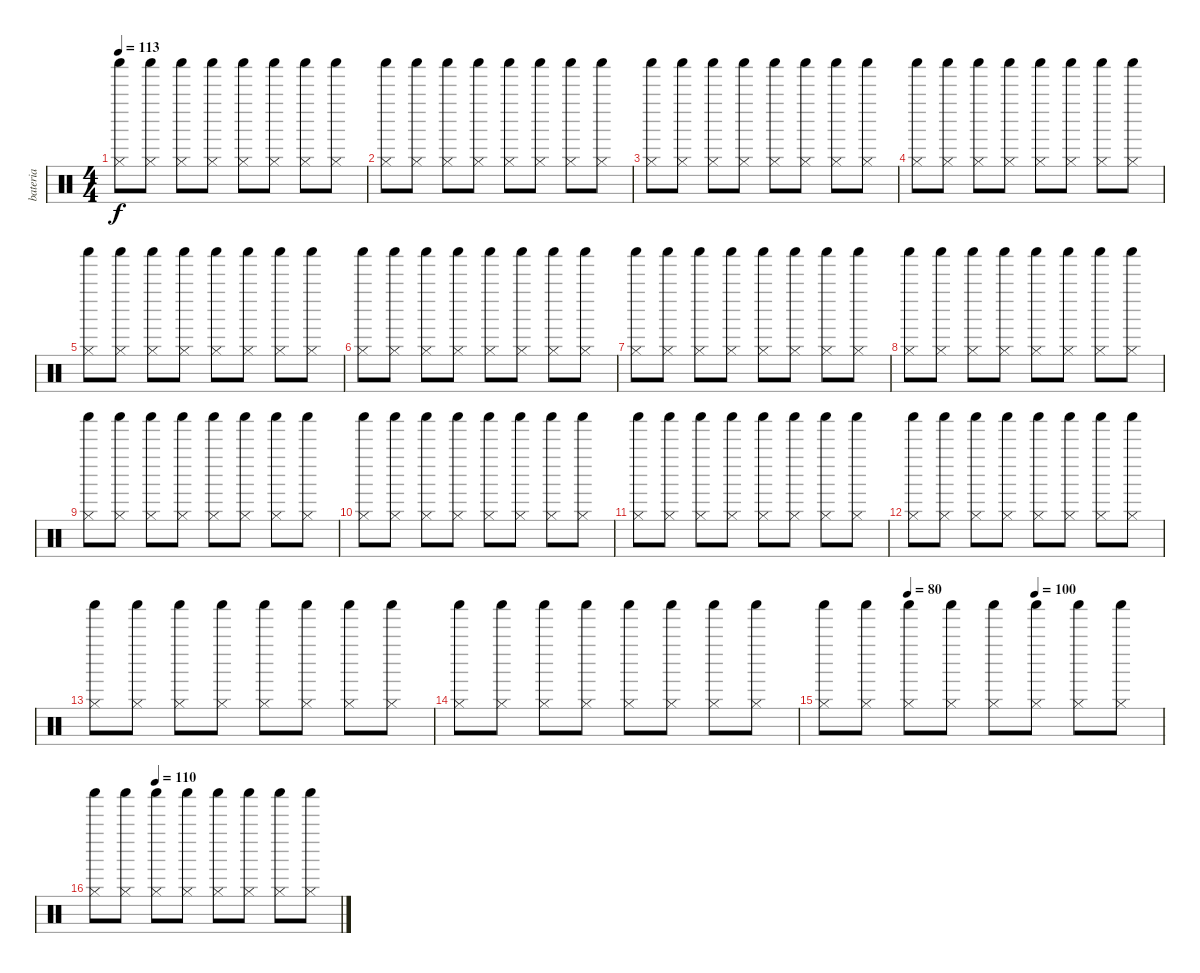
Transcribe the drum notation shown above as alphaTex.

\track ("bateria" "bateria") {instrument percussion}
\staff {score}
\articulation defaults
\ts (4 4)
\tempo 113
\clef neutral
\ks c
("Shaker (hit)" "Hi-Hat (closed)").8{dy f} ("Shaker (hit)" "Hi-Hat (closed)").8 ("Shaker (hit)" "Hi-Hat (closed)").8 ("Shaker (hit)" "Hi-Hat (closed)").8 ("Shaker (hit)" "Hi-Hat (closed)").8 ("Shaker (hit)" "Hi-Hat (closed)").8 ("Shaker (hit)" "Hi-Hat (closed)").8 ("Shaker (hit)" "Hi-Hat (closed)").8 |
("Shaker (hit)" "Hi-Hat (closed)").8 ("Shaker (hit)" "Hi-Hat (closed)").8 ("Shaker (hit)" "Hi-Hat (closed)").8 ("Shaker (hit)" "Hi-Hat (closed)").8 ("Shaker (hit)" "Hi-Hat (closed)").8 ("Shaker (hit)" "Hi-Hat (closed)").8 ("Shaker (hit)" "Hi-Hat (closed)").8 ("Shaker (hit)" "Hi-Hat (closed)").8 |
("Shaker (hit)" "Hi-Hat (closed)").8 ("Shaker (hit)" "Hi-Hat (closed)").8 ("Shaker (hit)" "Hi-Hat (closed)").8 ("Shaker (hit)" "Hi-Hat (closed)").8 ("Shaker (hit)" "Hi-Hat (closed)").8 ("Shaker (hit)" "Hi-Hat (closed)").8 ("Shaker (hit)" "Hi-Hat (closed)").8 ("Shaker (hit)" "Hi-Hat (closed)").8 |
("Shaker (hit)" "Hi-Hat (closed)").8 ("Shaker (hit)" "Hi-Hat (closed)").8 ("Shaker (hit)" "Hi-Hat (closed)").8 ("Shaker (hit)" "Hi-Hat (closed)").8 ("Shaker (hit)" "Hi-Hat (closed)").8 ("Shaker (hit)" "Hi-Hat (closed)").8 ("Shaker (hit)" "Hi-Hat (closed)").8 ("Shaker (hit)" "Hi-Hat (closed)").8 |
("Shaker (hit)" "Hi-Hat (closed)").8 ("Shaker (hit)" "Hi-Hat (closed)").8 ("Shaker (hit)" "Hi-Hat (closed)").8 ("Shaker (hit)" "Hi-Hat (closed)").8 ("Shaker (hit)" "Hi-Hat (closed)").8 ("Shaker (hit)" "Hi-Hat (closed)").8 ("Shaker (hit)" "Hi-Hat (closed)").8 ("Shaker (hit)" "Hi-Hat (closed)").8 |
("Shaker (hit)" "Hi-Hat (closed)").8 ("Shaker (hit)" "Hi-Hat (closed)").8 ("Shaker (hit)" "Hi-Hat (closed)").8 ("Shaker (hit)" "Hi-Hat (closed)").8 ("Shaker (hit)" "Hi-Hat (closed)").8 ("Shaker (hit)" "Hi-Hat (closed)").8 ("Shaker (hit)" "Hi-Hat (closed)").8 ("Shaker (hit)" "Hi-Hat (closed)").8 |
("Shaker (hit)" "Hi-Hat (closed)").8 ("Shaker (hit)" "Hi-Hat (closed)").8 ("Shaker (hit)" "Hi-Hat (closed)").8 ("Shaker (hit)" "Hi-Hat (closed)").8 ("Shaker (hit)" "Hi-Hat (closed)").8 ("Shaker (hit)" "Hi-Hat (closed)").8 ("Shaker (hit)" "Hi-Hat (closed)").8 ("Shaker (hit)" "Hi-Hat (closed)").8 |
("Shaker (hit)" "Hi-Hat (closed)").8 ("Shaker (hit)" "Hi-Hat (closed)").8 ("Shaker (hit)" "Hi-Hat (closed)").8 ("Shaker (hit)" "Hi-Hat (closed)").8 ("Shaker (hit)" "Hi-Hat (closed)").8 ("Shaker (hit)" "Hi-Hat (closed)").8 ("Shaker (hit)" "Hi-Hat (closed)").8 ("Shaker (hit)" "Hi-Hat (closed)").8 |
("Shaker (hit)" "Hi-Hat (closed)").8 ("Shaker (hit)" "Hi-Hat (closed)").8 ("Shaker (hit)" "Hi-Hat (closed)").8 ("Shaker (hit)" "Hi-Hat (closed)").8 ("Shaker (hit)" "Hi-Hat (closed)").8 ("Shaker (hit)" "Hi-Hat (closed)").8 ("Shaker (hit)" "Hi-Hat (closed)").8 ("Shaker (hit)" "Hi-Hat (closed)").8 |
("Shaker (hit)" "Hi-Hat (closed)").8 ("Shaker (hit)" "Hi-Hat (closed)").8 ("Shaker (hit)" "Hi-Hat (closed)").8 ("Shaker (hit)" "Hi-Hat (closed)").8 ("Shaker (hit)" "Hi-Hat (closed)").8 ("Shaker (hit)" "Hi-Hat (closed)").8 ("Shaker (hit)" "Hi-Hat (closed)").8 ("Shaker (hit)" "Hi-Hat (closed)").8 |
("Shaker (hit)" "Hi-Hat (closed)").8 ("Shaker (hit)" "Hi-Hat (closed)").8 ("Shaker (hit)" "Hi-Hat (closed)").8 ("Shaker (hit)" "Hi-Hat (closed)").8 ("Shaker (hit)" "Hi-Hat (closed)").8 ("Shaker (hit)" "Hi-Hat (closed)").8 ("Shaker (hit)" "Hi-Hat (closed)").8 ("Shaker (hit)" "Hi-Hat (closed)").8 |
("Shaker (hit)" "Hi-Hat (closed)").8 ("Shaker (hit)" "Hi-Hat (closed)").8 ("Shaker (hit)" "Hi-Hat (closed)").8 ("Shaker (hit)" "Hi-Hat (closed)").8 ("Shaker (hit)" "Hi-Hat (closed)").8 ("Shaker (hit)" "Hi-Hat (closed)").8 ("Shaker (hit)" "Hi-Hat (closed)").8 ("Shaker (hit)" "Hi-Hat (closed)").8 |
("Shaker (hit)" "Hi-Hat (closed)").8 ("Shaker (hit)" "Hi-Hat (closed)").8 ("Shaker (hit)" "Hi-Hat (closed)").8 ("Shaker (hit)" "Hi-Hat (closed)").8 ("Shaker (hit)" "Hi-Hat (closed)").8 ("Shaker (hit)" "Hi-Hat (closed)").8 ("Shaker (hit)" "Hi-Hat (closed)").8 ("Shaker (hit)" "Hi-Hat (closed)").8 |
("Shaker (hit)" "Hi-Hat (closed)").8 ("Shaker (hit)" "Hi-Hat (closed)").8 ("Shaker (hit)" "Hi-Hat (closed)").8 ("Shaker (hit)" "Hi-Hat (closed)").8 ("Shaker (hit)" "Hi-Hat (closed)").8 ("Shaker (hit)" "Hi-Hat (closed)").8 ("Shaker (hit)" "Hi-Hat (closed)").8 ("Shaker (hit)" "Hi-Hat (closed)").8 |
\tempo (80 0.25)
\tempo (100 0.625)
("Shaker (hit)" "Hi-Hat (closed)").8 ("Shaker (hit)" "Hi-Hat (closed)").8 ("Shaker (hit)" "Hi-Hat (closed)").8 ("Shaker (hit)" "Hi-Hat (closed)").8 ("Shaker (hit)" "Hi-Hat (closed)").8 ("Shaker (hit)" "Hi-Hat (closed)").8 ("Shaker (hit)" "Hi-Hat (closed)").8 ("Shaker (hit)" "Hi-Hat (closed)").8 |
\tempo (110 0.25)
("Shaker (hit)" "Hi-Hat (closed)").8 ("Shaker (hit)" "Hi-Hat (closed)").8 ("Shaker (hit)" "Hi-Hat (closed)").8 ("Shaker (hit)" "Hi-Hat (closed)").8 ("Shaker (hit)" "Hi-Hat (closed)").8 ("Shaker (hit)" "Hi-Hat (closed)").8 ("Shaker (hit)" "Hi-Hat (closed)").8 ("Shaker (hit)" "Hi-Hat (closed)").8
